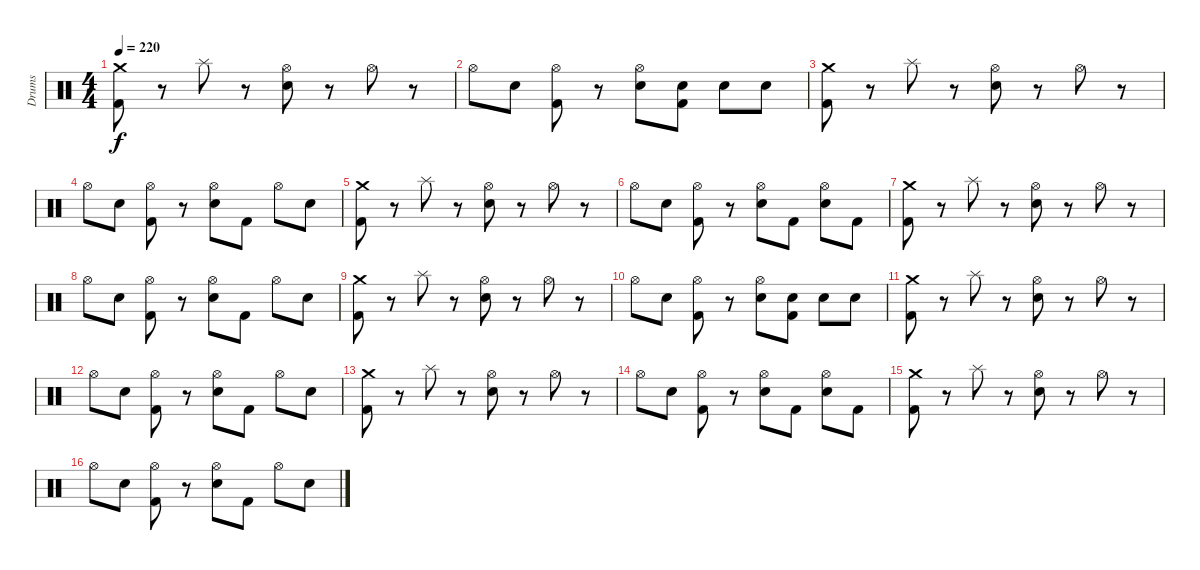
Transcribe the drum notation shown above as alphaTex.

\track ("Drums" "Drums") {instrument percussion}
\staff {score}
\articulation defaults
\ts (4 4)
\tempo 220
\clef neutral
\ks c
("Crash medium (hit)" "Kick (hit) 2").8{dy f} r.8 "Splash (hit)".8 r.8 ("Hi-Hat (open)" "Electric Snare (hit)").8 r.8 "Hi-Hat (open)".8 r.8 |
"Hi-Hat (open)".8 "Electric Snare (hit)".8 ("Hi-Hat (open)" "Kick (hit) 2").8 r.8 ("Hi-Hat (open)" "Electric Snare (hit)").8 ("Electric Snare (hit)" "Kick (hit) 2").8 "Electric Snare (hit)".8 "Electric Snare (hit)".8 |
("Crash medium (hit)" "Kick (hit) 2").8 r.8 "Splash (hit)".8 r.8 ("Hi-Hat (open)" "Electric Snare (hit)").8 r.8 "Hi-Hat (open)".8 r.8 |
"Hi-Hat (open)".8 "Electric Snare (hit)".8 ("Hi-Hat (open)" "Kick (hit) 2").8 r.8 ("Hi-Hat (open)" "Electric Snare (hit)").8 "Kick (hit) 2".8 "Hi-Hat (open)".8 "Electric Snare (hit)".8 |
("Crash medium (hit)" "Kick (hit) 2").8 r.8 "Splash (hit)".8 r.8 ("Hi-Hat (open)" "Electric Snare (hit)").8 r.8 "Hi-Hat (open)".8 r.8 |
"Hi-Hat (open)".8 "Electric Snare (hit)".8 ("Hi-Hat (open)" "Kick (hit) 2").8 r.8 ("Hi-Hat (open)" "Electric Snare (hit)").8 "Kick (hit) 2".8 ("Hi-Hat (open)" "Electric Snare (hit)").8 "Kick (hit) 2".8 |
("Crash medium (hit)" "Kick (hit) 2").8 r.8 "Splash (hit)".8 r.8 ("Hi-Hat (open)" "Electric Snare (hit)").8 r.8 "Hi-Hat (open)".8 r.8 |
"Hi-Hat (open)".8 "Electric Snare (hit)".8 ("Hi-Hat (open)" "Kick (hit) 2").8 r.8 ("Hi-Hat (open)" "Electric Snare (hit)").8 "Kick (hit) 2".8 "Hi-Hat (open)".8 "Electric Snare (hit)".8 |
("Crash medium (hit)" "Kick (hit) 2").8 r.8 "Splash (hit)".8 r.8 ("Hi-Hat (open)" "Electric Snare (hit)").8 r.8 "Hi-Hat (open)".8 r.8 |
"Hi-Hat (open)".8 "Electric Snare (hit)".8 ("Hi-Hat (open)" "Kick (hit) 2").8 r.8 ("Hi-Hat (open)" "Electric Snare (hit)").8 ("Electric Snare (hit)" "Kick (hit) 2").8 "Electric Snare (hit)".8 "Electric Snare (hit)".8 |
("Crash medium (hit)" "Kick (hit) 2").8 r.8 "Splash (hit)".8 r.8 ("Hi-Hat (open)" "Electric Snare (hit)").8 r.8 "Hi-Hat (open)".8 r.8 |
"Hi-Hat (open)".8 "Electric Snare (hit)".8 ("Hi-Hat (open)" "Kick (hit) 2").8 r.8 ("Hi-Hat (open)" "Electric Snare (hit)").8 "Kick (hit) 2".8 "Hi-Hat (open)".8 "Electric Snare (hit)".8 |
("Crash medium (hit)" "Kick (hit) 2").8 r.8 "Splash (hit)".8 r.8 ("Hi-Hat (open)" "Electric Snare (hit)").8 r.8 "Hi-Hat (open)".8 r.8 |
"Hi-Hat (open)".8 "Electric Snare (hit)".8 ("Hi-Hat (open)" "Kick (hit) 2").8 r.8 ("Hi-Hat (open)" "Electric Snare (hit)").8 "Kick (hit) 2".8 ("Hi-Hat (open)" "Electric Snare (hit)").8 "Kick (hit) 2".8 |
("Crash medium (hit)" "Kick (hit) 2").8 r.8 "Splash (hit)".8 r.8 ("Hi-Hat (open)" "Electric Snare (hit)").8 r.8 "Hi-Hat (open)".8 r.8 |
"Hi-Hat (open)".8 "Electric Snare (hit)".8 ("Hi-Hat (open)" "Kick (hit) 2").8 r.8 ("Hi-Hat (open)" "Electric Snare (hit)").8 "Kick (hit) 2".8 "Hi-Hat (open)".8 "Electric Snare (hit)".8
